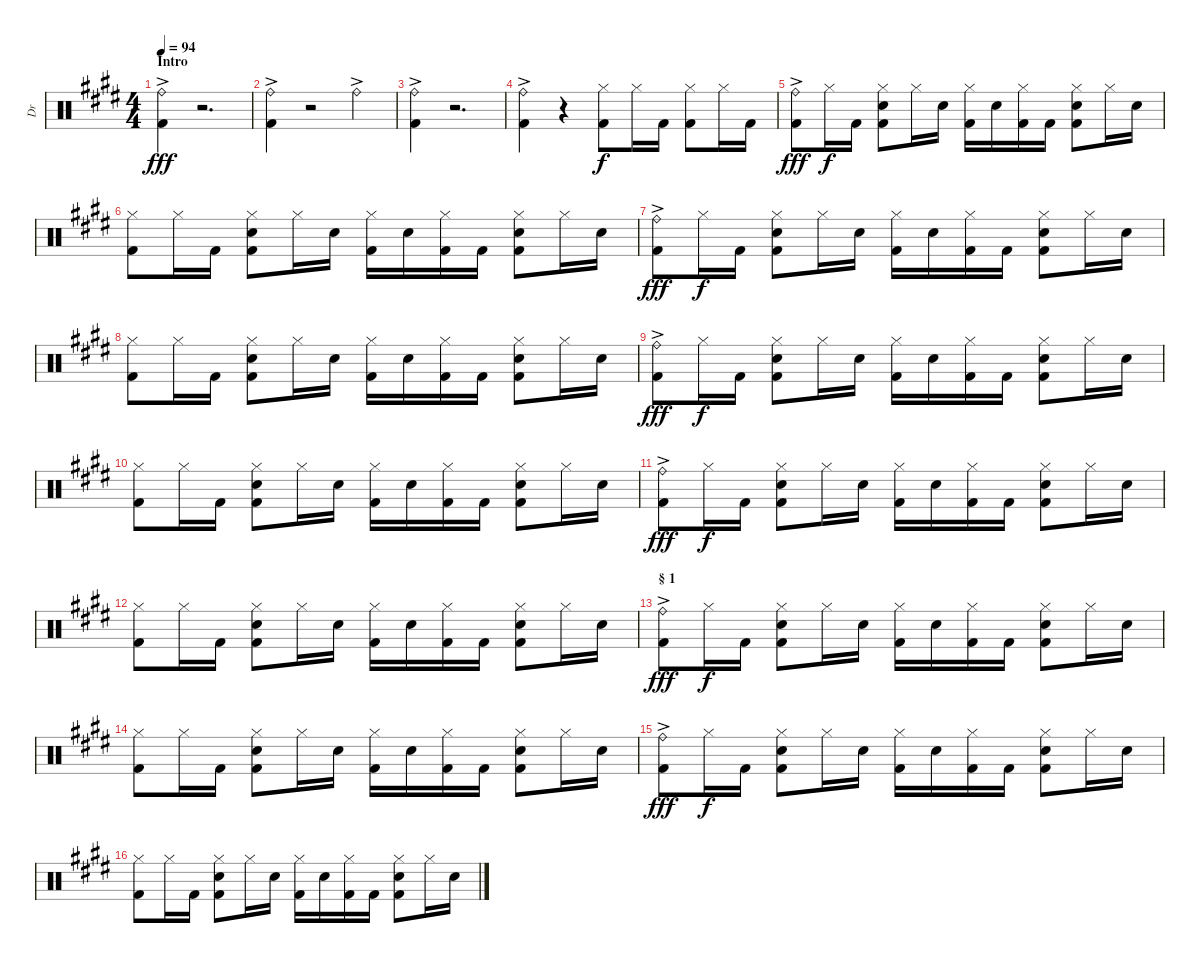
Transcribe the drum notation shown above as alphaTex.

\track ("Dr" "Dr") {instrument percussion}
\staff {score}
\articulation defaults
\ts (4 4)
\section ("" "Intro")
\tempo 94
\clef neutral
\ks e
("Ride (bell)"{ac} "Kick (hit) 2"{ac}).4{dy fff volume 16} r.2{d} |
("Ride (bell)"{ac} "Kick (hit) 2"{ac}).4 r.2 "Ride (bell)"{ac}.4 |
("Ride (bell)"{ac} "Kick (hit) 2"{ac}).4 r.2{d} |
("Ride (bell)"{ac} "Kick (hit) 2"{ac}).4 r.4 ("Hi-Hat (closed)" "Kick (hit) 2").8{dy f} "Hi-Hat (closed)".16 "Kick (hit) 2".16 ("Hi-Hat (closed)" "Kick (hit) 2").8 "Hi-Hat (closed)".16 "Kick (hit) 2".16 |
("Ride (bell)"{ac} "Kick (hit) 2"{ac}).8{dy fff} "Hi-Hat (closed)".16{dy f} "Kick (hit) 2".16 ("Hi-Hat (closed)" "Electric Snare (hit)" "Kick (hit) 2").8 "Hi-Hat (closed)".16 "Electric Snare (hit)".16 ("Hi-Hat (closed)" "Kick (hit) 2").16 "Electric Snare (hit)".16 ("Hi-Hat (closed)" "Kick (hit) 2").16 "Kick (hit) 2".16 ("Hi-Hat (closed)" "Electric Snare (hit)" "Kick (hit) 2").8 "Hi-Hat (closed)".16 "Electric Snare (hit)".16 |
("Hi-Hat (closed)" "Kick (hit) 2").8 "Hi-Hat (closed)".16 "Kick (hit) 2".16 ("Hi-Hat (closed)" "Electric Snare (hit)" "Kick (hit) 2").8 "Hi-Hat (closed)".16 "Electric Snare (hit)".16 ("Hi-Hat (closed)" "Kick (hit) 2").16 "Electric Snare (hit)".16 ("Hi-Hat (closed)" "Kick (hit) 2").16 "Kick (hit) 2".16 ("Hi-Hat (closed)" "Electric Snare (hit)" "Kick (hit) 2").8 "Hi-Hat (closed)".16 "Electric Snare (hit)".16 |
("Ride (bell)"{ac} "Kick (hit) 2"{ac}).8{dy fff} "Hi-Hat (closed)".16{dy f} "Kick (hit) 2".16 ("Hi-Hat (closed)" "Electric Snare (hit)" "Kick (hit) 2").8 "Hi-Hat (closed)".16 "Electric Snare (hit)".16 ("Hi-Hat (closed)" "Kick (hit) 2").16 "Electric Snare (hit)".16 ("Hi-Hat (closed)" "Kick (hit) 2").16 "Kick (hit) 2".16 ("Hi-Hat (closed)" "Electric Snare (hit)" "Kick (hit) 2").8 "Hi-Hat (closed)".16 "Electric Snare (hit)".16 |
("Hi-Hat (closed)" "Kick (hit) 2").8 "Hi-Hat (closed)".16 "Kick (hit) 2".16 ("Hi-Hat (closed)" "Electric Snare (hit)" "Kick (hit) 2").8 "Hi-Hat (closed)".16 "Electric Snare (hit)".16 ("Hi-Hat (closed)" "Kick (hit) 2").16 "Electric Snare (hit)".16 ("Hi-Hat (closed)" "Kick (hit) 2").16 "Kick (hit) 2".16 ("Hi-Hat (closed)" "Electric Snare (hit)" "Kick (hit) 2").8 "Hi-Hat (closed)".16 "Electric Snare (hit)".16 |
("Ride (bell)"{ac} "Kick (hit) 2"{ac}).8{dy fff} "Hi-Hat (closed)".16{dy f} "Kick (hit) 2".16 ("Hi-Hat (closed)" "Electric Snare (hit)" "Kick (hit) 2").8 "Hi-Hat (closed)".16 "Electric Snare (hit)".16 ("Hi-Hat (closed)" "Kick (hit) 2").16 "Electric Snare (hit)".16 ("Hi-Hat (closed)" "Kick (hit) 2").16 "Kick (hit) 2".16 ("Hi-Hat (closed)" "Electric Snare (hit)" "Kick (hit) 2").8 "Hi-Hat (closed)".16 "Electric Snare (hit)".16 |
("Hi-Hat (closed)" "Kick (hit) 2").8 "Hi-Hat (closed)".16 "Kick (hit) 2".16 ("Hi-Hat (closed)" "Electric Snare (hit)" "Kick (hit) 2").8 "Hi-Hat (closed)".16 "Electric Snare (hit)".16 ("Hi-Hat (closed)" "Kick (hit) 2").16 "Electric Snare (hit)".16 ("Hi-Hat (closed)" "Kick (hit) 2").16 "Kick (hit) 2".16 ("Hi-Hat (closed)" "Electric Snare (hit)" "Kick (hit) 2").8 "Hi-Hat (closed)".16 "Electric Snare (hit)".16 |
("Ride (bell)"{ac} "Kick (hit) 2"{ac}).8{dy fff} "Hi-Hat (closed)".16{dy f} "Kick (hit) 2".16 ("Hi-Hat (closed)" "Electric Snare (hit)" "Kick (hit) 2").8 "Hi-Hat (closed)".16 "Electric Snare (hit)".16 ("Hi-Hat (closed)" "Kick (hit) 2").16 "Electric Snare (hit)".16 ("Hi-Hat (closed)" "Kick (hit) 2").16 "Kick (hit) 2".16 ("Hi-Hat (closed)" "Electric Snare (hit)" "Kick (hit) 2").8 "Hi-Hat (closed)".16 "Electric Snare (hit)".16 |
("Hi-Hat (closed)" "Kick (hit) 2").8 "Hi-Hat (closed)".16 "Kick (hit) 2".16 ("Hi-Hat (closed)" "Electric Snare (hit)" "Kick (hit) 2").8 "Hi-Hat (closed)".16 "Electric Snare (hit)".16 ("Hi-Hat (closed)" "Kick (hit) 2").16 "Electric Snare (hit)".16 ("Hi-Hat (closed)" "Kick (hit) 2").16 "Kick (hit) 2".16 ("Hi-Hat (closed)" "Electric Snare (hit)" "Kick (hit) 2").8 "Hi-Hat (closed)".16 "Electric Snare (hit)".16 |
\section ("" "§ 1")
("Ride (bell)"{ac} "Kick (hit) 2"{ac}).8{dy fff} "Hi-Hat (closed)".16{dy f} "Kick (hit) 2".16 ("Hi-Hat (closed)" "Electric Snare (hit)" "Kick (hit) 2").8 "Hi-Hat (closed)".16 "Electric Snare (hit)".16 ("Hi-Hat (closed)" "Kick (hit) 2").16 "Electric Snare (hit)".16 ("Hi-Hat (closed)" "Kick (hit) 2").16 "Kick (hit) 2".16 ("Hi-Hat (closed)" "Electric Snare (hit)" "Kick (hit) 2").8 "Hi-Hat (closed)".16 "Electric Snare (hit)".16 |
("Hi-Hat (closed)" "Kick (hit) 2").8 "Hi-Hat (closed)".16 "Kick (hit) 2".16 ("Hi-Hat (closed)" "Electric Snare (hit)" "Kick (hit) 2").8 "Hi-Hat (closed)".16 "Electric Snare (hit)".16 ("Hi-Hat (closed)" "Kick (hit) 2").16 "Electric Snare (hit)".16 ("Hi-Hat (closed)" "Kick (hit) 2").16 "Kick (hit) 2".16 ("Hi-Hat (closed)" "Electric Snare (hit)" "Kick (hit) 2").8 "Hi-Hat (closed)".16 "Electric Snare (hit)".16 |
("Ride (bell)"{ac} "Kick (hit) 2"{ac}).8{dy fff} "Hi-Hat (closed)".16{dy f} "Kick (hit) 2".16 ("Hi-Hat (closed)" "Electric Snare (hit)" "Kick (hit) 2").8 "Hi-Hat (closed)".16 "Electric Snare (hit)".16 ("Hi-Hat (closed)" "Kick (hit) 2").16 "Electric Snare (hit)".16 ("Hi-Hat (closed)" "Kick (hit) 2").16 "Kick (hit) 2".16 ("Hi-Hat (closed)" "Electric Snare (hit)" "Kick (hit) 2").8 "Hi-Hat (closed)".16 "Electric Snare (hit)".16 |
("Hi-Hat (closed)" "Kick (hit) 2").8 "Hi-Hat (closed)".16 "Kick (hit) 2".16 ("Hi-Hat (closed)" "Electric Snare (hit)" "Kick (hit) 2").8 "Hi-Hat (closed)".16 "Electric Snare (hit)".16 ("Hi-Hat (closed)" "Kick (hit) 2").16 "Electric Snare (hit)".16 ("Hi-Hat (closed)" "Kick (hit) 2").16 "Kick (hit) 2".16 ("Hi-Hat (closed)" "Electric Snare (hit)" "Kick (hit) 2").8 "Hi-Hat (closed)".16 "Electric Snare (hit)".16
